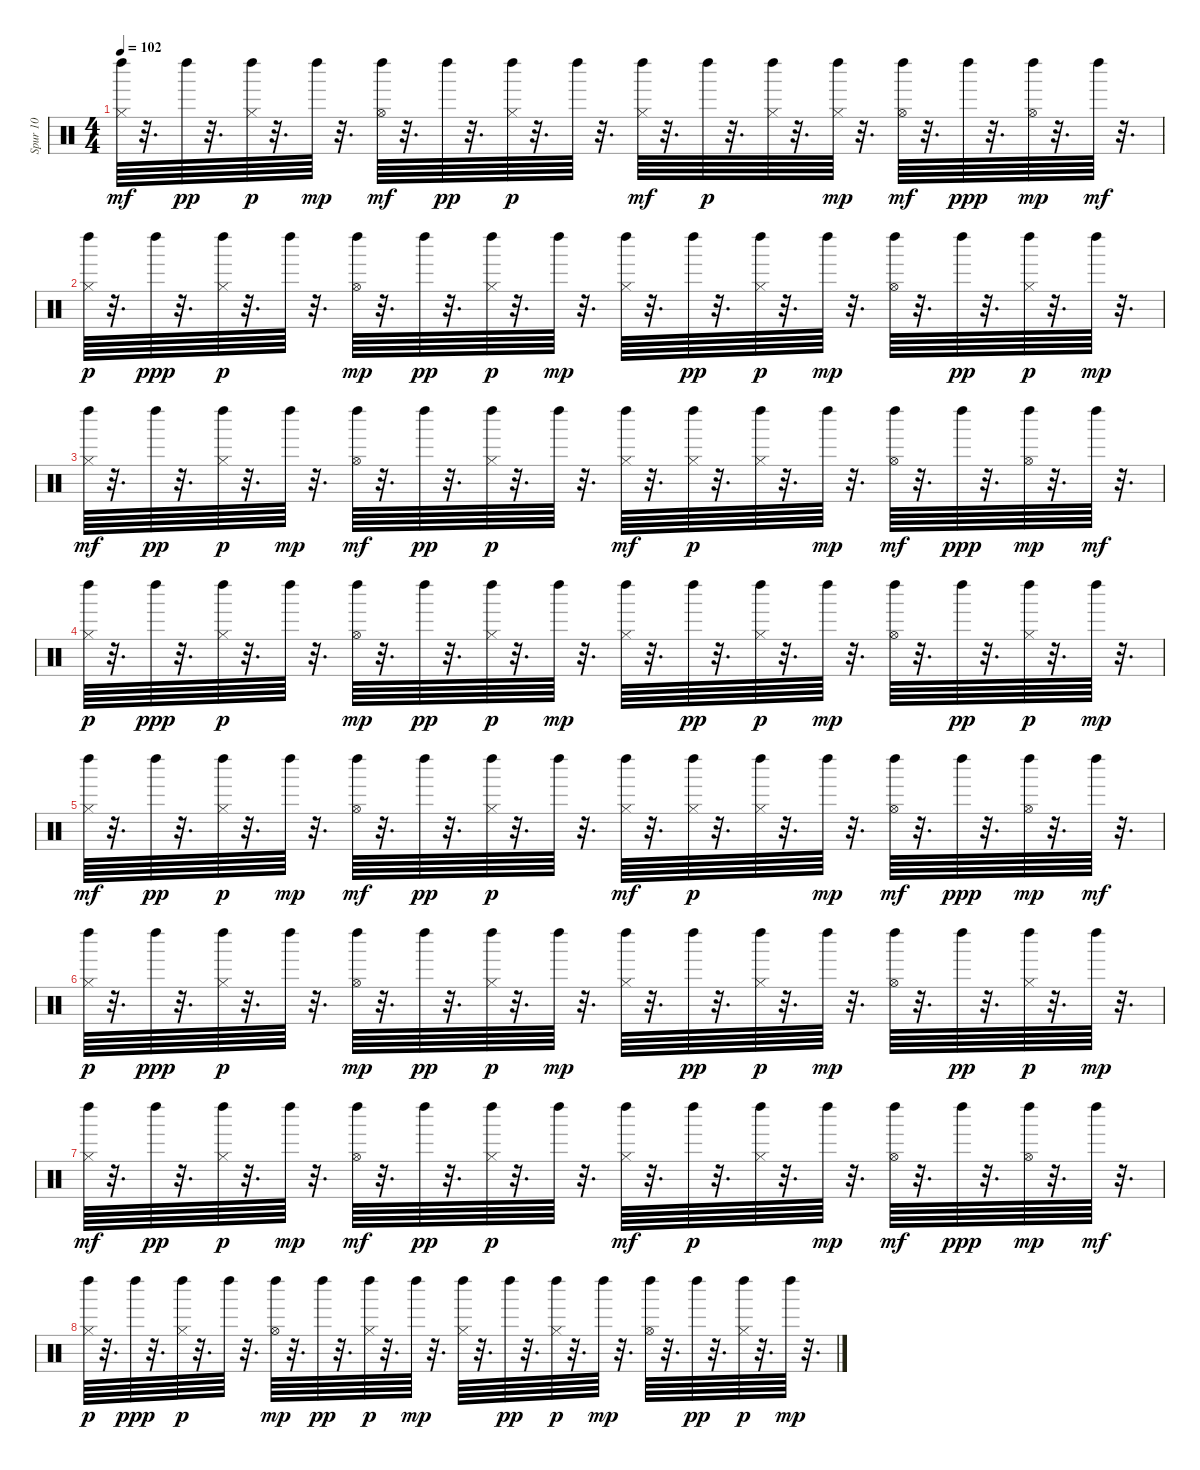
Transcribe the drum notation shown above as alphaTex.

\track ("Spur 10" "Spur 10") {instrument percussion}
\staff {score}
\articulation defaults
\ts (4 4)
\tempo 102
\clef neutral
\ks c
("Hi-Hat (closed)" "Left Maraca (hit)").64{dy mf} r.32{d} "Left Maraca (hit)".64{dy pp} r.32{d} ("Hi-Hat (closed)" "Left Maraca (hit)").64{dy p} r.32{d} "Left Maraca (hit)".64{dy mp} r.32{d} ("Hi-Hat (open)" "Left Maraca (hit)").64{dy mf} r.32{d} "Left Maraca (hit)".64{dy pp} r.32{d} ("Hi-Hat (closed)" "Left Maraca (hit)").64{dy p} r.32{d} "Left Maraca (hit)".64 r.32{d} ("Hi-Hat (closed)" "Left Maraca (hit)").64{dy mf} r.32{d} "Left Maraca (hit)".64{dy p} r.32{d} ("Hi-Hat (closed)" "Left Maraca (hit)").64 r.32{d} ("Hi-Hat (closed)" "Left Maraca (hit)").64{dy mp} r.32{d} ("Hi-Hat (open)" "Left Maraca (hit)").64{dy mf} r.32{d} "Left Maraca (hit)".64{dy ppp} r.32{d} ("Hi-Hat (open)" "Left Maraca (hit)").64{dy mp} r.32{d} "Left Maraca (hit)".64{dy mf} r.32{d} |
("Hi-Hat (closed)" "Left Maraca (hit)").64{dy p} r.32{d} "Left Maraca (hit)".64{dy ppp} r.32{d} ("Hi-Hat (closed)" "Left Maraca (hit)").64{dy p} r.32{d} "Left Maraca (hit)".64 r.32{d} ("Hi-Hat (open)" "Left Maraca (hit)").64{dy mp} r.32{d} "Left Maraca (hit)".64{dy pp} r.32{d} ("Hi-Hat (closed)" "Left Maraca (hit)").64{dy p} r.32{d} "Left Maraca (hit)".64{dy mp} r.32{d} ("Hi-Hat (closed)" "Left Maraca (hit)").64 r.32{d} "Left Maraca (hit)".64{dy pp} r.32{d} ("Hi-Hat (closed)" "Left Maraca (hit)").64{dy p} r.32{d} "Left Maraca (hit)".64{dy mp} r.32{d} ("Hi-Hat (open)" "Left Maraca (hit)").64 r.32{d} "Left Maraca (hit)".64{dy pp} r.32{d} ("Hi-Hat (closed)" "Left Maraca (hit)").64{dy p} r.32{d} "Left Maraca (hit)".64{dy mp} r.32{d} |
("Hi-Hat (closed)" "Left Maraca (hit)").64{dy mf} r.32{d} "Left Maraca (hit)".64{dy pp} r.32{d} ("Hi-Hat (closed)" "Left Maraca (hit)").64{dy p} r.32{d} "Left Maraca (hit)".64{dy mp} r.32{d} ("Hi-Hat (open)" "Left Maraca (hit)").64{dy mf} r.32{d} "Left Maraca (hit)".64{dy pp} r.32{d} ("Hi-Hat (closed)" "Left Maraca (hit)").64{dy p} r.32{d} "Left Maraca (hit)".64 r.32{d} ("Hi-Hat (closed)" "Left Maraca (hit)").64{dy mf} r.32{d} ("Hi-Hat (closed)" "Left Maraca (hit)").64{dy p} r.32{d} ("Hi-Hat (closed)" "Left Maraca (hit)").64 r.32{d} "Left Maraca (hit)".64{dy mp} r.32{d} ("Hi-Hat (open)" "Left Maraca (hit)").64{dy mf} r.32{d} "Left Maraca (hit)".64{dy ppp} r.32{d} ("Hi-Hat (open)" "Left Maraca (hit)").64{dy mp} r.32{d} "Left Maraca (hit)".64{dy mf} r.32{d} |
("Hi-Hat (closed)" "Left Maraca (hit)").64{dy p} r.32{d} "Left Maraca (hit)".64{dy ppp} r.32{d} ("Hi-Hat (closed)" "Left Maraca (hit)").64{dy p} r.32{d} "Left Maraca (hit)".64 r.32{d} ("Hi-Hat (open)" "Left Maraca (hit)").64{dy mp} r.32{d} "Left Maraca (hit)".64{dy pp} r.32{d} ("Hi-Hat (closed)" "Left Maraca (hit)").64{dy p} r.32{d} "Left Maraca (hit)".64{dy mp} r.32{d} ("Hi-Hat (closed)" "Left Maraca (hit)").64 r.32{d} "Left Maraca (hit)".64{dy pp} r.32{d} ("Hi-Hat (closed)" "Left Maraca (hit)").64{dy p} r.32{d} "Left Maraca (hit)".64{dy mp} r.32{d} ("Hi-Hat (open)" "Left Maraca (hit)").64 r.32{d} "Left Maraca (hit)".64{dy pp} r.32{d} ("Hi-Hat (closed)" "Left Maraca (hit)").64{dy p} r.32{d} "Left Maraca (hit)".64{dy mp} r.32{d} |
("Hi-Hat (closed)" "Left Maraca (hit)").64{dy mf} r.32{d} "Left Maraca (hit)".64{dy pp} r.32{d} ("Hi-Hat (closed)" "Left Maraca (hit)").64{dy p} r.32{d} "Left Maraca (hit)".64{dy mp} r.32{d} ("Hi-Hat (open)" "Left Maraca (hit)").64{dy mf} r.32{d} "Left Maraca (hit)".64{dy pp} r.32{d} ("Hi-Hat (closed)" "Left Maraca (hit)").64{dy p} r.32{d} "Left Maraca (hit)".64 r.32{d} ("Hi-Hat (closed)" "Left Maraca (hit)").64{dy mf} r.32{d} ("Hi-Hat (closed)" "Left Maraca (hit)").64{dy p} r.32{d} ("Hi-Hat (closed)" "Left Maraca (hit)").64 r.32{d} "Left Maraca (hit)".64{dy mp} r.32{d} ("Hi-Hat (open)" "Left Maraca (hit)").64{dy mf} r.32{d} "Left Maraca (hit)".64{dy ppp} r.32{d} ("Hi-Hat (open)" "Left Maraca (hit)").64{dy mp} r.32{d} "Left Maraca (hit)".64{dy mf} r.32{d} |
("Hi-Hat (closed)" "Left Maraca (hit)").64{dy p} r.32{d} "Left Maraca (hit)".64{dy ppp} r.32{d} ("Hi-Hat (closed)" "Left Maraca (hit)").64{dy p} r.32{d} "Left Maraca (hit)".64 r.32{d} ("Hi-Hat (open)" "Left Maraca (hit)").64{dy mp} r.32{d} "Left Maraca (hit)".64{dy pp} r.32{d} ("Hi-Hat (closed)" "Left Maraca (hit)").64{dy p} r.32{d} "Left Maraca (hit)".64{dy mp} r.32{d} ("Hi-Hat (closed)" "Left Maraca (hit)").64 r.32{d} "Left Maraca (hit)".64{dy pp} r.32{d} ("Hi-Hat (closed)" "Left Maraca (hit)").64{dy p} r.32{d} "Left Maraca (hit)".64{dy mp} r.32{d} ("Hi-Hat (open)" "Left Maraca (hit)").64 r.32{d} "Left Maraca (hit)".64{dy pp} r.32{d} ("Hi-Hat (closed)" "Left Maraca (hit)").64{dy p} r.32{d} "Left Maraca (hit)".64{dy mp} r.32{d} |
("Hi-Hat (closed)" "Left Maraca (hit)").64{dy mf} r.32{d} "Left Maraca (hit)".64{dy pp} r.32{d} ("Hi-Hat (closed)" "Left Maraca (hit)").64{dy p} r.32{d} "Left Maraca (hit)".64{dy mp} r.32{d} ("Hi-Hat (open)" "Left Maraca (hit)").64{dy mf} r.32{d} "Left Maraca (hit)".64{dy pp} r.32{d} ("Hi-Hat (closed)" "Left Maraca (hit)").64{dy p} r.32{d} "Left Maraca (hit)".64 r.32{d} ("Hi-Hat (closed)" "Left Maraca (hit)").64{dy mf} r.32{d} "Left Maraca (hit)".64{dy p} r.32{d} ("Hi-Hat (closed)" "Left Maraca (hit)").64 r.32{d} "Left Maraca (hit)".64{dy mp} r.32{d} ("Hi-Hat (open)" "Left Maraca (hit)").64{dy mf} r.32{d} "Left Maraca (hit)".64{dy ppp} r.32{d} ("Hi-Hat (open)" "Left Maraca (hit)").64{dy mp} r.32{d} "Left Maraca (hit)".64{dy mf} r.32{d} |
("Hi-Hat (closed)" "Left Maraca (hit)").64{dy p} r.32{d} "Left Maraca (hit)".64{dy ppp} r.32{d} ("Hi-Hat (closed)" "Left Maraca (hit)").64{dy p} r.32{d} "Left Maraca (hit)".64 r.32{d} ("Hi-Hat (open)" "Left Maraca (hit)").64{dy mp} r.32{d} "Left Maraca (hit)".64{dy pp} r.32{d} ("Hi-Hat (closed)" "Left Maraca (hit)").64{dy p} r.32{d} "Left Maraca (hit)".64{dy mp} r.32{d} ("Hi-Hat (closed)" "Left Maraca (hit)").64 r.32{d} "Left Maraca (hit)".64{dy pp} r.32{d} ("Hi-Hat (closed)" "Left Maraca (hit)").64{dy p} r.32{d} "Left Maraca (hit)".64{dy mp} r.32{d} ("Hi-Hat (open)" "Left Maraca (hit)").64 r.32{d} "Left Maraca (hit)".64{dy pp} r.32{d} ("Hi-Hat (closed)" "Left Maraca (hit)").64{dy p} r.32{d} "Left Maraca (hit)".64{dy mp} r.32{d}
